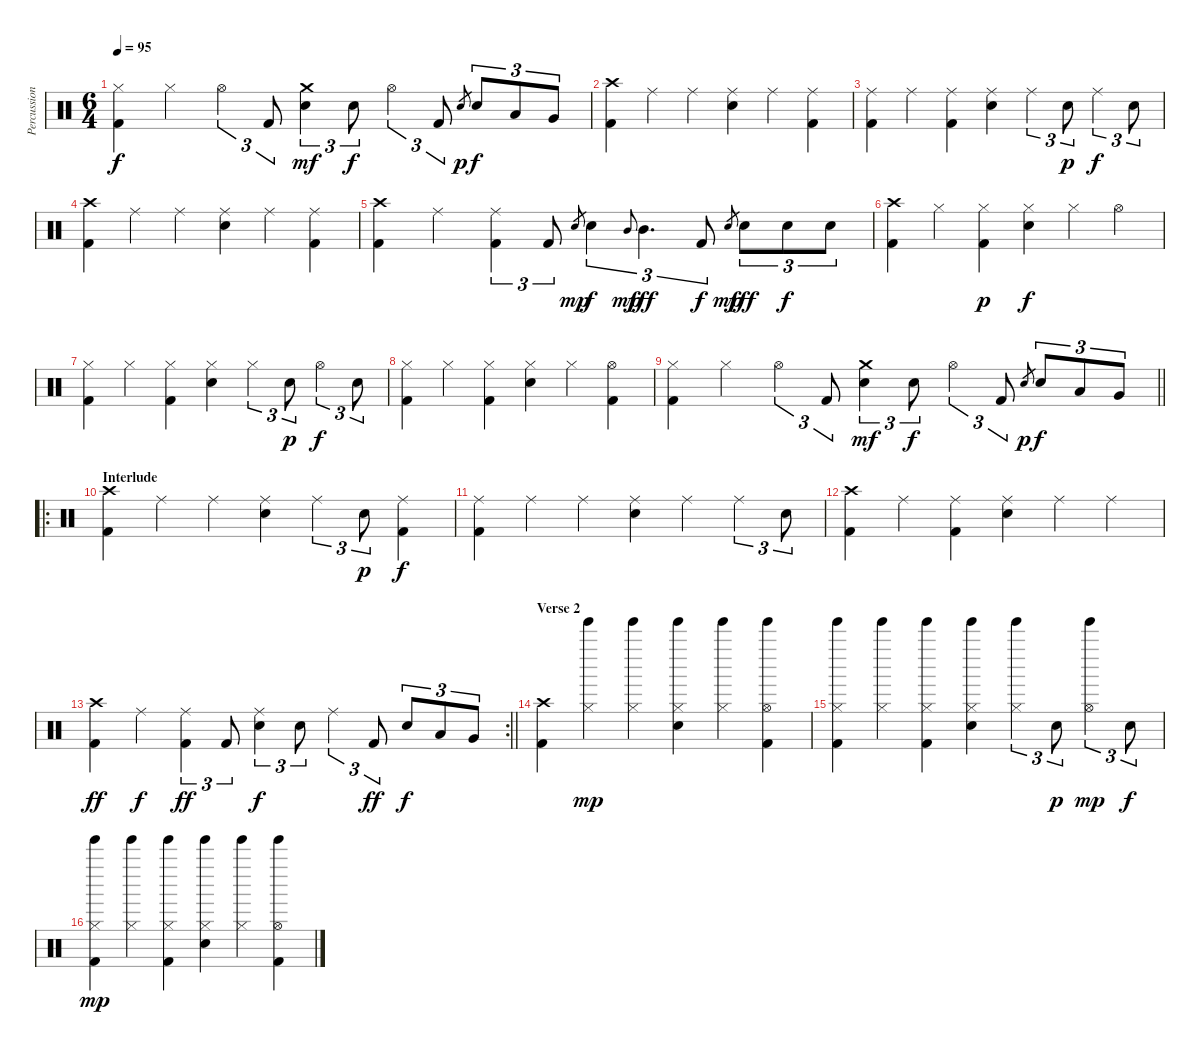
\track ("Percussion" "Percussion") {instrument percussion}
\staff {score}
\articulation defaults
\ts (6 4)
\tempo 95
\clef neutral
\ks c
("Kick (hit) 2" "Hi-Hat (closed)").4{dy f} "Hi-Hat (closed)".4 "Hi-Hat (open)".4{tu (3 2)} "Kick (hit) 2".8{tu (3 2)} ("Snare (hit) 2" "Crash medium (hit)").4{tu (3 2) dy mf} "Snare (hit) 2".8{tu (3 2) dy f} "Hi-Hat (open)".4{tu (3 2)} "Kick (hit) 2".8{tu (3 2)} "Snare (hit) 2".8{gr dy p} "Snare (hit) 2".8{tu (3 2) dy f} "Low Tom (hit)".8{tu (3 2)} "Very Low Tom (hit)".8{tu (3 2)} |
("Kick (hit) 2" "Crash high (hit)").4 "Ride (middle)".4 "Ride (middle)".4 ("Ride (middle)" "Snare (hit) 2").4 "Ride (middle)".4 ("Ride (middle)" "Kick (hit) 2").4 |
("Kick (hit) 2" "Ride (middle)").4 "Ride (middle)".4 ("Ride (middle)" "Kick (hit) 2").4 ("Ride (middle)" "Snare (hit) 2").4 "Ride (middle)".4{tu (3 2)} "Snare (hit) 2".8{tu (3 2) dy p} "Ride (middle)".4{tu (3 2) dy f} "Snare (hit) 2".8{tu (3 2)} |
("Kick (hit) 2" "Crash high (hit)").4 "Ride (middle)".4 "Ride (middle)".4 ("Ride (middle)" "Snare (hit) 2").4 "Ride (middle)".4 ("Ride (middle)" "Kick (hit) 2").4 |
("Kick (hit) 2" "Crash high (hit)").4 "Ride (middle)".4 ("Ride (middle)" "Kick (hit) 2").4{tu (3 2)} "Kick (hit) 2".8{tu (3 2)} "Snare (hit) 2".8{gr dy mp} "Snare (hit) 2".4{tu (3 2) dy f} "Mid Tom (hit)".8{gr onbeat dy mp} "Mid Tom (hit)".4{d tu (3 2) dy fff} "Kick (hit) 2".8{tu (3 2) dy f} "Snare (hit) 2".8{gr dy mp} "Snare (hit) 2".8{tu (3 2) dy fff} "Snare (hit) 2".8{tu (3 2) dy f} "Snare (hit) 2".8{tu (3 2)} |
("Kick (hit) 2" "Crash high (hit)").4 "Hi-Hat (closed)".4 ("Hi-Hat (closed)" "Kick (hit) 2").4{dy p} ("Hi-Hat (closed)" "Snare (hit) 2").4{dy f} "Hi-Hat (closed)".4 "Hi-Hat (open)".4 |
("Kick (hit) 2" "Hi-Hat (closed)").4 "Hi-Hat (closed)".4 ("Hi-Hat (closed)" "Kick (hit) 2").4 ("Hi-Hat (closed)" "Snare (hit) 2").4 "Hi-Hat (closed)".4{tu (3 2)} "Snare (hit) 2".8{tu (3 2) dy p} "Hi-Hat (open)".4{tu (3 2) dy f} "Snare (hit) 2".8{tu (3 2)} |
("Kick (hit) 2" "Hi-Hat (closed)").4 "Hi-Hat (closed)".4 ("Hi-Hat (closed)" "Kick (hit) 2").4 ("Hi-Hat (closed)" "Snare (hit) 2").4 "Hi-Hat (closed)".4 ("Hi-Hat (open)" "Kick (hit) 2").4 |
\barLineRight lightlight
("Kick (hit) 2" "Hi-Hat (closed)").4 "Hi-Hat (closed)".4 "Hi-Hat (open)".4{tu (3 2)} "Kick (hit) 2".8{tu (3 2)} ("Snare (hit) 2" "Crash medium (hit)").4{tu (3 2) dy mf} "Snare (hit) 2".8{tu (3 2) dy f} "Hi-Hat (open)".4{tu (3 2)} "Kick (hit) 2".8{tu (3 2)} "Snare (hit) 2".8{gr dy p} "Snare (hit) 2".8{tu (3 2) dy f} "Low Tom (hit)".8{tu (3 2)} "Very Low Tom (hit)".8{tu (3 2)} |
\ro
\section ("" "Interlude")
("Kick (hit) 2" "Crash high (hit)").4 "Ride (middle)".4 "Ride (middle)".4 ("Ride (middle)" "Snare (hit) 2").4 "Ride (middle)".4{tu (3 2)} "Snare (hit) 2".8{tu (3 2) dy p} ("Ride (middle)" "Kick (hit) 2").4{dy f} |
("Kick (hit) 2" "Ride (middle)").4 "Ride (middle)".4 "Ride (middle)".4 ("Ride (middle)" "Snare (hit) 2").4 "Ride (middle)".4 "Ride (middle)".4{tu (3 2)} "Snare (hit) 2".8{tu (3 2)} |
("Kick (hit) 2" "Crash high (hit)").4 "Ride (middle)".4 ("Ride (middle)" "Kick (hit) 2").4 ("Ride (middle)" "Snare (hit) 2").4 "Ride (middle)".4 "Ride (middle)".4 |
\rc 2
\barLineRight lightlight
("Kick (hit) 2" "Crash high (hit)").4{dy ff} "Ride (middle)".4{dy f} ("Ride (middle)" "Kick (hit) 2").4{tu (3 2) dy ff} "Kick (hit) 2".8{tu (3 2)} ("Ride (middle)" "Snare (hit) 2").4{tu (3 2) dy f} "Snare (hit) 2".8{tu (3 2)} "Ride (middle)".4{tu (3 2)} "Kick (hit) 2".8{tu (3 2) dy ff} "Snare (hit) 2".8{tu (3 2) dy f} "Low Tom (hit)".8{tu (3 2)} "Very Low Tom (hit)".8{tu (3 2)} |
\section ("" "Verse 2")
("Kick (hit) 2" "Crash high (hit)").4 ("Hi-Hat (closed)" "Tinkle Bell (hit)").4{dy mp} ("Hi-Hat (closed)" "Tinkle Bell (hit)").4 ("Hi-Hat (closed)" "Snare (hit) 2" "Tinkle Bell (hit)").4 ("Hi-Hat (closed)" "Tinkle Bell (hit)").4 ("Hi-Hat (open)" "Kick (hit) 2" "Tinkle Bell (hit)").4 |
("Kick (hit) 2" "Hi-Hat (closed)" "Tinkle Bell (hit)").4 ("Hi-Hat (closed)" "Tinkle Bell (hit)").4 ("Hi-Hat (closed)" "Kick (hit) 2" "Tinkle Bell (hit)").4 ("Hi-Hat (closed)" "Snare (hit) 2" "Tinkle Bell (hit)").4 ("Hi-Hat (closed)" "Tinkle Bell (hit)").4{tu (3 2)} "Snare (hit) 2".8{tu (3 2) dy p} ("Hi-Hat (open)" "Tinkle Bell (hit)").4{tu (3 2) dy mp} "Snare (hit) 2".8{tu (3 2) dy f} |
("Kick (hit) 2" "Hi-Hat (closed)" "Tinkle Bell (hit)").4{dy mp} ("Hi-Hat (closed)" "Tinkle Bell (hit)").4 ("Hi-Hat (closed)" "Kick (hit) 2" "Tinkle Bell (hit)").4 ("Hi-Hat (closed)" "Snare (hit) 2" "Tinkle Bell (hit)").4 ("Hi-Hat (closed)" "Tinkle Bell (hit)").4 ("Hi-Hat (open)" "Kick (hit) 2" "Tinkle Bell (hit)").4
